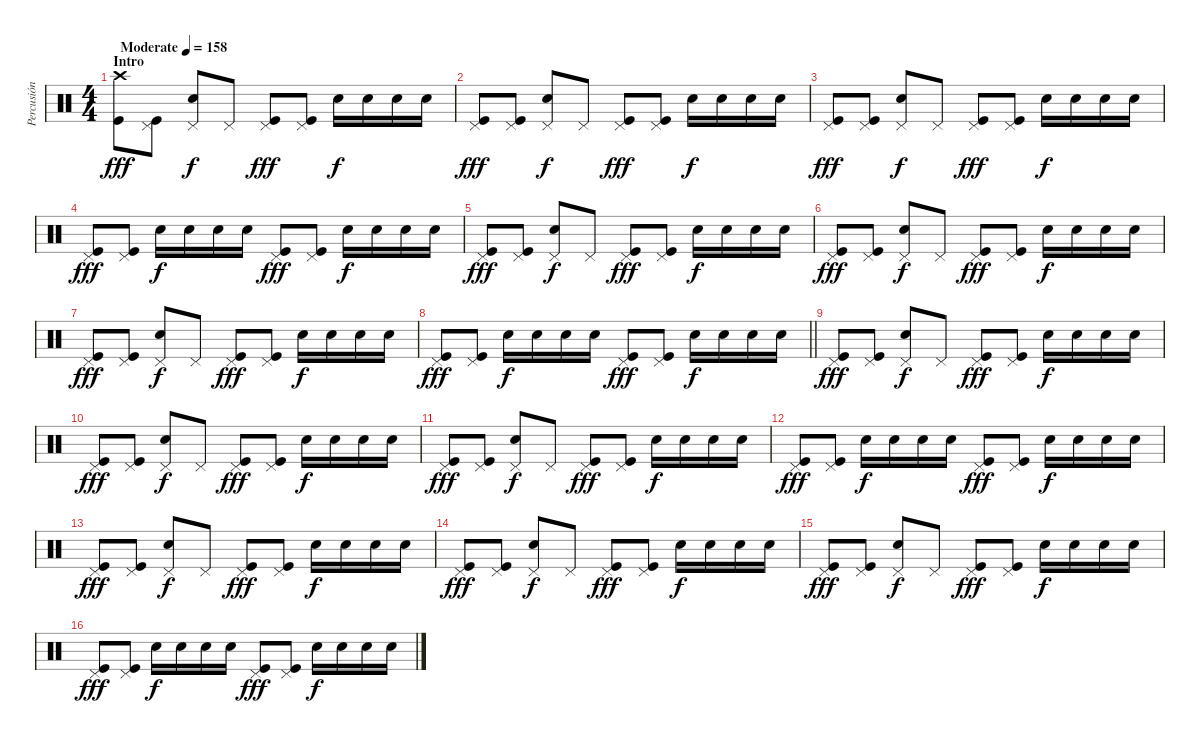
\track ("Percusión" "Percusión") {instrument percussion}
\staff {score}
\articulation defaults
\ts (4 4)
\section ("" "Intro")
\tempo (158 "Moderate")
\clef neutral
\ks c
("Crash high (hit)" "Kick (hit)").8{dy fff} ("Pedal Hi-Hat (hit)" "Kick (hit)").8 ("Pedal Hi-Hat (hit)" "Electric Snare (hit)").8{dy f} "Pedal Hi-Hat (hit)".8 ("Pedal Hi-Hat (hit)" "Kick (hit)").8{dy fff} ("Pedal Hi-Hat (hit)" "Kick (hit)").8 "Electric Snare (hit)".16{dy f} "Electric Snare (hit)".16 "Electric Snare (hit)".16 "Electric Snare (hit)".16 |
("Pedal Hi-Hat (hit)" "Kick (hit)").8{dy fff} ("Pedal Hi-Hat (hit)" "Kick (hit)").8 ("Pedal Hi-Hat (hit)" "Electric Snare (hit)").8{dy f} "Pedal Hi-Hat (hit)".8 ("Pedal Hi-Hat (hit)" "Kick (hit)").8{dy fff} ("Pedal Hi-Hat (hit)" "Kick (hit)").8 "Electric Snare (hit)".16{dy f} "Electric Snare (hit)".16 "Electric Snare (hit)".16 "Electric Snare (hit)".16 |
("Pedal Hi-Hat (hit)" "Kick (hit)").8{dy fff} ("Pedal Hi-Hat (hit)" "Kick (hit)").8 ("Pedal Hi-Hat (hit)" "Electric Snare (hit)").8{dy f} "Pedal Hi-Hat (hit)".8 ("Pedal Hi-Hat (hit)" "Kick (hit)").8{dy fff} ("Pedal Hi-Hat (hit)" "Kick (hit)").8 "Electric Snare (hit)".16{dy f} "Electric Snare (hit)".16 "Electric Snare (hit)".16 "Electric Snare (hit)".16 |
("Pedal Hi-Hat (hit)" "Kick (hit)").8{dy fff} ("Pedal Hi-Hat (hit)" "Kick (hit)").8 "Electric Snare (hit)".16{dy f} "Electric Snare (hit)".16 "Electric Snare (hit)".16 "Electric Snare (hit)".16 ("Pedal Hi-Hat (hit)" "Kick (hit)").8{dy fff} ("Pedal Hi-Hat (hit)" "Kick (hit)").8 "Electric Snare (hit)".16{dy f} "Electric Snare (hit)".16 "Electric Snare (hit)".16 "Electric Snare (hit)".16 |
("Pedal Hi-Hat (hit)" "Kick (hit)").8{dy fff} ("Pedal Hi-Hat (hit)" "Kick (hit)").8 ("Pedal Hi-Hat (hit)" "Electric Snare (hit)").8{dy f} "Pedal Hi-Hat (hit)".8 ("Pedal Hi-Hat (hit)" "Kick (hit)").8{dy fff} ("Pedal Hi-Hat (hit)" "Kick (hit)").8 "Electric Snare (hit)".16{dy f} "Electric Snare (hit)".16 "Electric Snare (hit)".16 "Electric Snare (hit)".16 |
("Pedal Hi-Hat (hit)" "Kick (hit)").8{dy fff} ("Pedal Hi-Hat (hit)" "Kick (hit)").8 ("Pedal Hi-Hat (hit)" "Electric Snare (hit)").8{dy f} "Pedal Hi-Hat (hit)".8 ("Pedal Hi-Hat (hit)" "Kick (hit)").8{dy fff} ("Pedal Hi-Hat (hit)" "Kick (hit)").8 "Electric Snare (hit)".16{dy f} "Electric Snare (hit)".16 "Electric Snare (hit)".16 "Electric Snare (hit)".16 |
("Pedal Hi-Hat (hit)" "Kick (hit)").8{dy fff} ("Pedal Hi-Hat (hit)" "Kick (hit)").8 ("Pedal Hi-Hat (hit)" "Electric Snare (hit)").8{dy f} "Pedal Hi-Hat (hit)".8 ("Pedal Hi-Hat (hit)" "Kick (hit)").8{dy fff} ("Pedal Hi-Hat (hit)" "Kick (hit)").8 "Electric Snare (hit)".16{dy f} "Electric Snare (hit)".16 "Electric Snare (hit)".16 "Electric Snare (hit)".16 |
\barLineRight lightlight
("Pedal Hi-Hat (hit)" "Kick (hit)").8{dy fff} ("Pedal Hi-Hat (hit)" "Kick (hit)").8 "Electric Snare (hit)".16{dy f} "Electric Snare (hit)".16 "Electric Snare (hit)".16 "Electric Snare (hit)".16 ("Pedal Hi-Hat (hit)" "Kick (hit)").8{dy fff} ("Pedal Hi-Hat (hit)" "Kick (hit)").8 "Electric Snare (hit)".16{dy f} "Electric Snare (hit)".16 "Electric Snare (hit)".16 "Electric Snare (hit)".16 |
("Pedal Hi-Hat (hit)" "Kick (hit)").8{dy fff} ("Pedal Hi-Hat (hit)" "Kick (hit)").8 ("Pedal Hi-Hat (hit)" "Electric Snare (hit)").8{dy f} "Pedal Hi-Hat (hit)".8 ("Pedal Hi-Hat (hit)" "Kick (hit)").8{dy fff} ("Pedal Hi-Hat (hit)" "Kick (hit)").8 "Electric Snare (hit)".16{dy f} "Electric Snare (hit)".16 "Electric Snare (hit)".16 "Electric Snare (hit)".16 |
("Pedal Hi-Hat (hit)" "Kick (hit)").8{dy fff} ("Pedal Hi-Hat (hit)" "Kick (hit)").8 ("Pedal Hi-Hat (hit)" "Electric Snare (hit)").8{dy f} "Pedal Hi-Hat (hit)".8 ("Pedal Hi-Hat (hit)" "Kick (hit)").8{dy fff} ("Pedal Hi-Hat (hit)" "Kick (hit)").8 "Electric Snare (hit)".16{dy f} "Electric Snare (hit)".16 "Electric Snare (hit)".16 "Electric Snare (hit)".16 |
("Pedal Hi-Hat (hit)" "Kick (hit)").8{dy fff} ("Pedal Hi-Hat (hit)" "Kick (hit)").8 ("Pedal Hi-Hat (hit)" "Electric Snare (hit)").8{dy f} "Pedal Hi-Hat (hit)".8 ("Pedal Hi-Hat (hit)" "Kick (hit)").8{dy fff} ("Pedal Hi-Hat (hit)" "Kick (hit)").8 "Electric Snare (hit)".16{dy f} "Electric Snare (hit)".16 "Electric Snare (hit)".16 "Electric Snare (hit)".16 |
("Pedal Hi-Hat (hit)" "Kick (hit)").8{dy fff} ("Pedal Hi-Hat (hit)" "Kick (hit)").8 "Electric Snare (hit)".16{dy f} "Electric Snare (hit)".16 "Electric Snare (hit)".16 "Electric Snare (hit)".16 ("Pedal Hi-Hat (hit)" "Kick (hit)").8{dy fff} ("Pedal Hi-Hat (hit)" "Kick (hit)").8 "Electric Snare (hit)".16{dy f} "Electric Snare (hit)".16 "Electric Snare (hit)".16 "Electric Snare (hit)".16 |
("Pedal Hi-Hat (hit)" "Kick (hit)").8{dy fff} ("Pedal Hi-Hat (hit)" "Kick (hit)").8 ("Pedal Hi-Hat (hit)" "Electric Snare (hit)").8{dy f} "Pedal Hi-Hat (hit)".8 ("Pedal Hi-Hat (hit)" "Kick (hit)").8{dy fff} ("Pedal Hi-Hat (hit)" "Kick (hit)").8 "Electric Snare (hit)".16{dy f} "Electric Snare (hit)".16 "Electric Snare (hit)".16 "Electric Snare (hit)".16 |
("Pedal Hi-Hat (hit)" "Kick (hit)").8{dy fff} ("Pedal Hi-Hat (hit)" "Kick (hit)").8 ("Pedal Hi-Hat (hit)" "Electric Snare (hit)").8{dy f} "Pedal Hi-Hat (hit)".8 ("Pedal Hi-Hat (hit)" "Kick (hit)").8{dy fff} ("Pedal Hi-Hat (hit)" "Kick (hit)").8 "Electric Snare (hit)".16{dy f} "Electric Snare (hit)".16 "Electric Snare (hit)".16 "Electric Snare (hit)".16 |
("Pedal Hi-Hat (hit)" "Kick (hit)").8{dy fff} ("Pedal Hi-Hat (hit)" "Kick (hit)").8 ("Pedal Hi-Hat (hit)" "Electric Snare (hit)").8{dy f} "Pedal Hi-Hat (hit)".8 ("Pedal Hi-Hat (hit)" "Kick (hit)").8{dy fff} ("Pedal Hi-Hat (hit)" "Kick (hit)").8 "Electric Snare (hit)".16{dy f} "Electric Snare (hit)".16 "Electric Snare (hit)".16 "Electric Snare (hit)".16 |
("Pedal Hi-Hat (hit)" "Kick (hit)").8{dy fff} ("Pedal Hi-Hat (hit)" "Kick (hit)").8 "Electric Snare (hit)".16{dy f} "Electric Snare (hit)".16 "Electric Snare (hit)".16 "Electric Snare (hit)".16 ("Pedal Hi-Hat (hit)" "Kick (hit)").8{dy fff} ("Pedal Hi-Hat (hit)" "Kick (hit)").8 "Electric Snare (hit)".16{dy f} "Electric Snare (hit)".16 "Electric Snare (hit)".16 "Electric Snare (hit)".16
